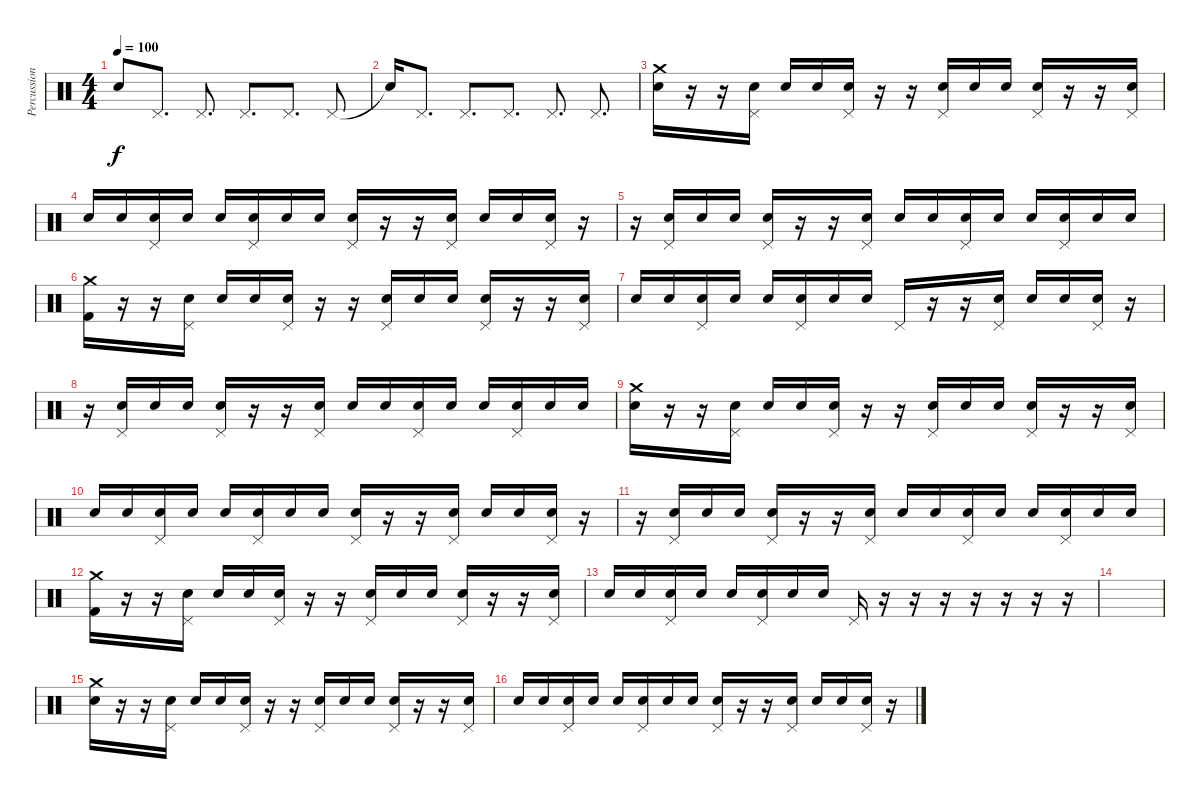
\track ("Percussion" "Percussion") {instrument percussion}
\staff {score}
\articulation defaults
\ts (4 4)
\tempo 100
\clef neutral
\ks c "Snare (hit)"{t}.8{dy f} "Pedal Hi-Hat (hit)".8{d} "Pedal Hi-Hat (hit)".8{d} "Pedal Hi-Hat (hit)".8{d} "Pedal Hi-Hat (hit)".8{d} "Pedal Hi-Hat (hit)".8
|
"Snare (hit)"{t}.16 "Pedal Hi-Hat (hit)".8{d} "Pedal Hi-Hat (hit)".8{d} "Pedal Hi-Hat (hit)".8{d} "Pedal Hi-Hat (hit)".8{d} "Pedal Hi-Hat (hit)".8{d} |
("Crash medium (hit)" "Snare (hit) 2").16 r.16 r.16 ("Pedal Hi-Hat (hit)" "Snare (hit) 2").16 "Snare (hit) 2".16 "Snare (hit) 2".16 ("Pedal Hi-Hat (hit)" "Snare (hit) 2").16 r.16 r.16 ("Pedal Hi-Hat (hit)" "Snare (hit) 2").16 "Snare (hit) 2".16 "Snare (hit) 2".16 ("Pedal Hi-Hat (hit)" "Snare (hit) 2").16 r.16 r.16 ("Pedal Hi-Hat (hit)" "Snare (hit) 2").16 |
"Snare (hit) 2".16 "Snare (hit) 2".16 ("Pedal Hi-Hat (hit)" "Snare (hit) 2").16 "Snare (hit) 2".16 "Snare (hit) 2".16 ("Pedal Hi-Hat (hit)" "Snare (hit) 2").16 "Snare (hit) 2".16 "Snare (hit) 2".16 ("Pedal Hi-Hat (hit)" "Snare (hit) 2").16 r.16 r.16 ("Pedal Hi-Hat (hit)" "Snare (hit) 2").16 "Snare (hit) 2".16 "Snare (hit) 2".16 ("Pedal Hi-Hat (hit)" "Snare (hit) 2").16 r.16 |
r.16 ("Pedal Hi-Hat (hit)" "Snare (hit) 2").16 "Snare (hit) 2".16 "Snare (hit) 2".16 ("Pedal Hi-Hat (hit)" "Snare (hit) 2").16 r.16 r.16 ("Pedal Hi-Hat (hit)" "Snare (hit) 2").16 "Snare (hit) 2".16 "Snare (hit) 2".16 ("Pedal Hi-Hat (hit)" "Snare (hit) 2").16 "Snare (hit) 2".16 "Snare (hit) 2".16 ("Pedal Hi-Hat (hit)" "Snare (hit) 2").16 "Snare (hit) 2".16 "Snare (hit) 2".16 |
("Crash medium (hit)" "Kick (hit) 2").16 r.16 r.16 ("Pedal Hi-Hat (hit)" "Snare (hit) 2").16 "Snare (hit) 2".16 "Snare (hit) 2".16 ("Pedal Hi-Hat (hit)" "Snare (hit) 2").16 r.16 r.16 ("Pedal Hi-Hat (hit)" "Snare (hit) 2").16 "Snare (hit) 2".16 "Snare (hit) 2".16 ("Pedal Hi-Hat (hit)" "Snare (hit) 2").16 r.16 r.16 ("Pedal Hi-Hat (hit)" "Snare (hit) 2").16 |
"Snare (hit) 2".16 "Snare (hit) 2".16 ("Pedal Hi-Hat (hit)" "Snare (hit) 2").16 "Snare (hit) 2".16 "Snare (hit) 2".16 ("Pedal Hi-Hat (hit)" "Snare (hit) 2").16 "Snare (hit) 2".16 "Snare (hit) 2".16 "Pedal Hi-Hat (hit)".16 r.16 r.16 ("Pedal Hi-Hat (hit)" "Snare (hit) 2").16 "Snare (hit) 2".16 "Snare (hit) 2".16 ("Pedal Hi-Hat (hit)" "Snare (hit) 2").16 r.16 |
r.16 ("Pedal Hi-Hat (hit)" "Snare (hit) 2").16 "Snare (hit) 2".16 "Snare (hit) 2".16 ("Pedal Hi-Hat (hit)" "Snare (hit) 2").16 r.16 r.16 ("Pedal Hi-Hat (hit)" "Snare (hit) 2").16 "Snare (hit) 2".16 "Snare (hit) 2".16 ("Pedal Hi-Hat (hit)" "Snare (hit) 2").16 "Snare (hit) 2".16 "Snare (hit) 2".16 ("Pedal Hi-Hat (hit)" "Snare (hit) 2").16 "Snare (hit) 2".16 "Snare (hit) 2".16 |
("Crash medium (hit)" "Snare (hit) 2").16 r.16 r.16 ("Pedal Hi-Hat (hit)" "Snare (hit) 2").16 "Snare (hit) 2".16 "Snare (hit) 2".16 ("Pedal Hi-Hat (hit)" "Snare (hit) 2").16 r.16 r.16 ("Pedal Hi-Hat (hit)" "Snare (hit) 2").16 "Snare (hit) 2".16 "Snare (hit) 2".16 ("Pedal Hi-Hat (hit)" "Snare (hit) 2").16 r.16 r.16 ("Pedal Hi-Hat (hit)" "Snare (hit) 2").16 |
"Snare (hit) 2".16 "Snare (hit) 2".16 ("Pedal Hi-Hat (hit)" "Snare (hit) 2").16 "Snare (hit) 2".16 "Snare (hit) 2".16 ("Pedal Hi-Hat (hit)" "Snare (hit) 2").16 "Snare (hit) 2".16 "Snare (hit) 2".16 ("Pedal Hi-Hat (hit)" "Snare (hit) 2").16 r.16 r.16 ("Pedal Hi-Hat (hit)" "Snare (hit) 2").16 "Snare (hit) 2".16 "Snare (hit) 2".16 ("Pedal Hi-Hat (hit)" "Snare (hit) 2").16 r.16 |
r.16 ("Pedal Hi-Hat (hit)" "Snare (hit) 2").16 "Snare (hit) 2".16 "Snare (hit) 2".16 ("Pedal Hi-Hat (hit)" "Snare (hit) 2").16 r.16 r.16 ("Pedal Hi-Hat (hit)" "Snare (hit) 2").16 "Snare (hit) 2".16 "Snare (hit) 2".16 ("Pedal Hi-Hat (hit)" "Snare (hit) 2").16 "Snare (hit) 2".16 "Snare (hit) 2".16 ("Pedal Hi-Hat (hit)" "Snare (hit) 2").16 "Snare (hit) 2".16 "Snare (hit) 2".16 |
("Crash medium (hit)" "Kick (hit) 2").16 r.16 r.16 ("Pedal Hi-Hat (hit)" "Snare (hit) 2").16 "Snare (hit) 2".16 "Snare (hit) 2".16 ("Pedal Hi-Hat (hit)" "Snare (hit) 2").16 r.16 r.16 ("Pedal Hi-Hat (hit)" "Snare (hit) 2").16 "Snare (hit) 2".16 "Snare (hit) 2".16 ("Pedal Hi-Hat (hit)" "Snare (hit) 2").16 r.16 r.16 ("Pedal Hi-Hat (hit)" "Snare (hit) 2").16 |
"Snare (hit) 2".16 "Snare (hit) 2".16 ("Pedal Hi-Hat (hit)" "Snare (hit) 2").16 "Snare (hit) 2".16 "Snare (hit) 2".16 ("Pedal Hi-Hat (hit)" "Snare (hit) 2").16 "Snare (hit) 2".16 "Snare (hit) 2".16 "Pedal Hi-Hat (hit)".16 r.16 r.16 r.16 r.16 r.16 r.16 r.16 |
|
("Crash medium (hit)" "Snare (hit) 2").16 r.16 r.16 ("Pedal Hi-Hat (hit)" "Snare (hit) 2").16 "Snare (hit) 2".16 "Snare (hit) 2".16 ("Pedal Hi-Hat (hit)" "Snare (hit) 2").16 r.16 r.16 ("Pedal Hi-Hat (hit)" "Snare (hit) 2").16 "Snare (hit) 2".16 "Snare (hit) 2".16 ("Pedal Hi-Hat (hit)" "Snare (hit) 2").16 r.16 r.16 ("Pedal Hi-Hat (hit)" "Snare (hit) 2").16 |
"Snare (hit) 2".16 "Snare (hit) 2".16 ("Pedal Hi-Hat (hit)" "Snare (hit) 2").16 "Snare (hit) 2".16 "Snare (hit) 2".16 ("Pedal Hi-Hat (hit)" "Snare (hit) 2").16 "Snare (hit) 2".16 "Snare (hit) 2".16 ("Pedal Hi-Hat (hit)" "Snare (hit) 2").16 r.16 r.16 ("Pedal Hi-Hat (hit)" "Snare (hit) 2").16 "Snare (hit) 2".16 "Snare (hit) 2".16 ("Pedal Hi-Hat (hit)" "Snare (hit) 2").16 r.16
